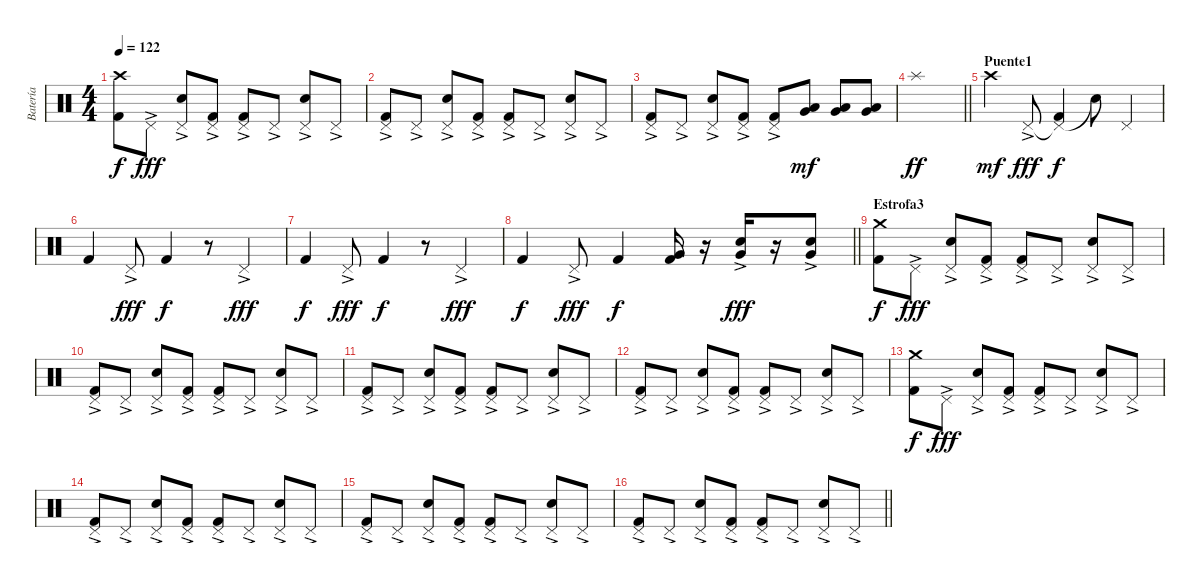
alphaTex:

\track ("Batería" "Batería") {instrument percussion}
\staff {score}
\articulation defaults
\ts (4 4)
\tempo 122
\clef neutral
\ks c
("Crash high (hit)" "Kick (hit) 2").8{dy f} "Pedal Hi-Hat (hit)"{ac}.8{dy fff} ("Pedal Hi-Hat (hit)"{ac} "Electric Snare (hit)").8 ("Pedal Hi-Hat (hit)"{ac} "Kick (hit) 2").8 ("Pedal Hi-Hat (hit)"{ac} "Kick (hit) 2").8 "Pedal Hi-Hat (hit)"{ac}.8 ("Pedal Hi-Hat (hit)"{ac} "Electric Snare (hit)").8 "Pedal Hi-Hat (hit)"{ac}.8 |
("Pedal Hi-Hat (hit)"{ac} "Kick (hit) 2").8 "Pedal Hi-Hat (hit)"{ac}.8 ("Pedal Hi-Hat (hit)"{ac} "Electric Snare (hit)").8 ("Pedal Hi-Hat (hit)"{ac} "Kick (hit) 2").8 ("Pedal Hi-Hat (hit)"{ac} "Kick (hit) 2").8 "Pedal Hi-Hat (hit)"{ac}.8 ("Pedal Hi-Hat (hit)"{ac} "Electric Snare (hit)").8 "Pedal Hi-Hat (hit)"{ac}.8 |
("Pedal Hi-Hat (hit)"{ac} "Kick (hit) 2").8 "Pedal Hi-Hat (hit)"{ac}.8 ("Pedal Hi-Hat (hit)"{ac} "Electric Snare (hit)").8 ("Pedal Hi-Hat (hit)"{ac} "Kick (hit) 2").8 ("Pedal Hi-Hat (hit)"{ac} "Kick (hit) 2").8 ("Low Floor Tom (hit)" "Very Low Tom (hit)").8{dy mf} ("Low Floor Tom (hit)" "Very Low Tom (hit)").8 ("Low Floor Tom (hit)" "Very Low Tom (hit)").8 |
\barLineRight lightlight "Splash (hit)".1{dy ff}
|
\section ("" "Puente1")
"Crash high (hit)".4{dy mf} "Pedal Hi-Hat (hit)"{ac}.8{dy fff} ("Pedal Hi-Hat (hit)"{t} "Kick (hit) 2").4{dy f} "Snare (hit)"{t}.8 "Pedal Hi-Hat (hit)".4 |
"Kick (hit) 2".4 "Pedal Hi-Hat (hit)"{ac}.8{dy fff} "Kick (hit) 2".4{dy f} r.8 "Pedal Hi-Hat (hit)"{ac}.4{dy fff} |
"Kick (hit) 2".4{dy f} "Pedal Hi-Hat (hit)"{ac}.8{dy fff} "Kick (hit) 2".4{dy f} r.8 "Pedal Hi-Hat (hit)"{ac}.4{dy fff} |
\barLineRight lightlight "Kick (hit) 2".4{dy f} "Pedal Hi-Hat (hit)"{ac}.8{dy fff} "Kick (hit) 2".4{dy f}
("Very Low Tom (hit)" "Kick (hit) 2").16 r.16 ("Electric Snare (hit)" "Very Low Tom (hit)"{ac}).16{dy fff} r.16 ("Electric Snare (hit)" "Very Low Tom (hit)"{ac}).8 |
\section ("" "Estrofa3")
("Crash medium (hit)" "Kick (hit) 2").8{dy f} "Pedal Hi-Hat (hit)"{ac}.8{dy fff} ("Pedal Hi-Hat (hit)"{ac} "Electric Snare (hit)").8 ("Pedal Hi-Hat (hit)"{ac} "Kick (hit) 2").8 ("Pedal Hi-Hat (hit)"{ac} "Kick (hit) 2").8 "Pedal Hi-Hat (hit)"{ac}.8 ("Pedal Hi-Hat (hit)"{ac} "Electric Snare (hit)").8 "Pedal Hi-Hat (hit)"{ac}.8 |
("Pedal Hi-Hat (hit)"{ac} "Kick (hit) 2").8 "Pedal Hi-Hat (hit)"{ac}.8 ("Pedal Hi-Hat (hit)"{ac} "Electric Snare (hit)").8 ("Pedal Hi-Hat (hit)"{ac} "Kick (hit) 2").8 ("Pedal Hi-Hat (hit)"{ac} "Kick (hit) 2").8 "Pedal Hi-Hat (hit)"{ac}.8 ("Pedal Hi-Hat (hit)"{ac} "Electric Snare (hit)").8 "Pedal Hi-Hat (hit)"{ac}.8 |
("Pedal Hi-Hat (hit)"{ac} "Kick (hit) 2").8 "Pedal Hi-Hat (hit)"{ac}.8 ("Pedal Hi-Hat (hit)"{ac} "Electric Snare (hit)").8 ("Pedal Hi-Hat (hit)"{ac} "Kick (hit) 2").8 ("Pedal Hi-Hat (hit)"{ac} "Kick (hit) 2").8 "Pedal Hi-Hat (hit)"{ac}.8 ("Pedal Hi-Hat (hit)"{ac} "Electric Snare (hit)").8 "Pedal Hi-Hat (hit)"{ac}.8 |
("Pedal Hi-Hat (hit)"{ac} "Kick (hit) 2").8 "Pedal Hi-Hat (hit)"{ac}.8 ("Pedal Hi-Hat (hit)"{ac} "Electric Snare (hit)").8 ("Pedal Hi-Hat (hit)"{ac} "Kick (hit) 2").8 ("Pedal Hi-Hat (hit)"{ac} "Kick (hit) 2").8 "Pedal Hi-Hat (hit)"{ac}.8 ("Pedal Hi-Hat (hit)"{ac} "Electric Snare (hit)").8 "Pedal Hi-Hat (hit)"{ac}.8 |
("Crash medium (hit)" "Kick (hit) 2").8{dy f} "Pedal Hi-Hat (hit)"{ac}.8{dy fff} ("Pedal Hi-Hat (hit)"{ac} "Electric Snare (hit)").8 ("Pedal Hi-Hat (hit)"{ac} "Kick (hit) 2").8 ("Pedal Hi-Hat (hit)"{ac} "Kick (hit) 2").8 "Pedal Hi-Hat (hit)"{ac}.8 ("Pedal Hi-Hat (hit)"{ac} "Electric Snare (hit)").8 "Pedal Hi-Hat (hit)"{ac}.8 |
("Pedal Hi-Hat (hit)"{ac} "Kick (hit) 2").8 "Pedal Hi-Hat (hit)"{ac}.8 ("Pedal Hi-Hat (hit)"{ac} "Electric Snare (hit)").8 ("Pedal Hi-Hat (hit)"{ac} "Kick (hit) 2").8 ("Pedal Hi-Hat (hit)"{ac} "Kick (hit) 2").8 "Pedal Hi-Hat (hit)"{ac}.8 ("Pedal Hi-Hat (hit)"{ac} "Electric Snare (hit)").8 "Pedal Hi-Hat (hit)"{ac}.8 |
("Pedal Hi-Hat (hit)"{ac} "Kick (hit) 2").8 "Pedal Hi-Hat (hit)"{ac}.8 ("Pedal Hi-Hat (hit)"{ac} "Electric Snare (hit)").8 ("Pedal Hi-Hat (hit)"{ac} "Kick (hit) 2").8 ("Pedal Hi-Hat (hit)"{ac} "Kick (hit) 2").8 "Pedal Hi-Hat (hit)"{ac}.8 ("Pedal Hi-Hat (hit)"{ac} "Electric Snare (hit)").8 "Pedal Hi-Hat (hit)"{ac}.8 |
\barLineRight lightlight
("Pedal Hi-Hat (hit)"{ac} "Kick (hit) 2").8 "Pedal Hi-Hat (hit)"{ac}.8 ("Pedal Hi-Hat (hit)"{ac} "Electric Snare (hit)").8 ("Pedal Hi-Hat (hit)"{ac} "Kick (hit) 2").8 ("Pedal Hi-Hat (hit)"{ac} "Kick (hit) 2").8 "Pedal Hi-Hat (hit)"{ac}.8 ("Pedal Hi-Hat (hit)"{ac} "Electric Snare (hit)").8 "Pedal Hi-Hat (hit)"{ac}.8
